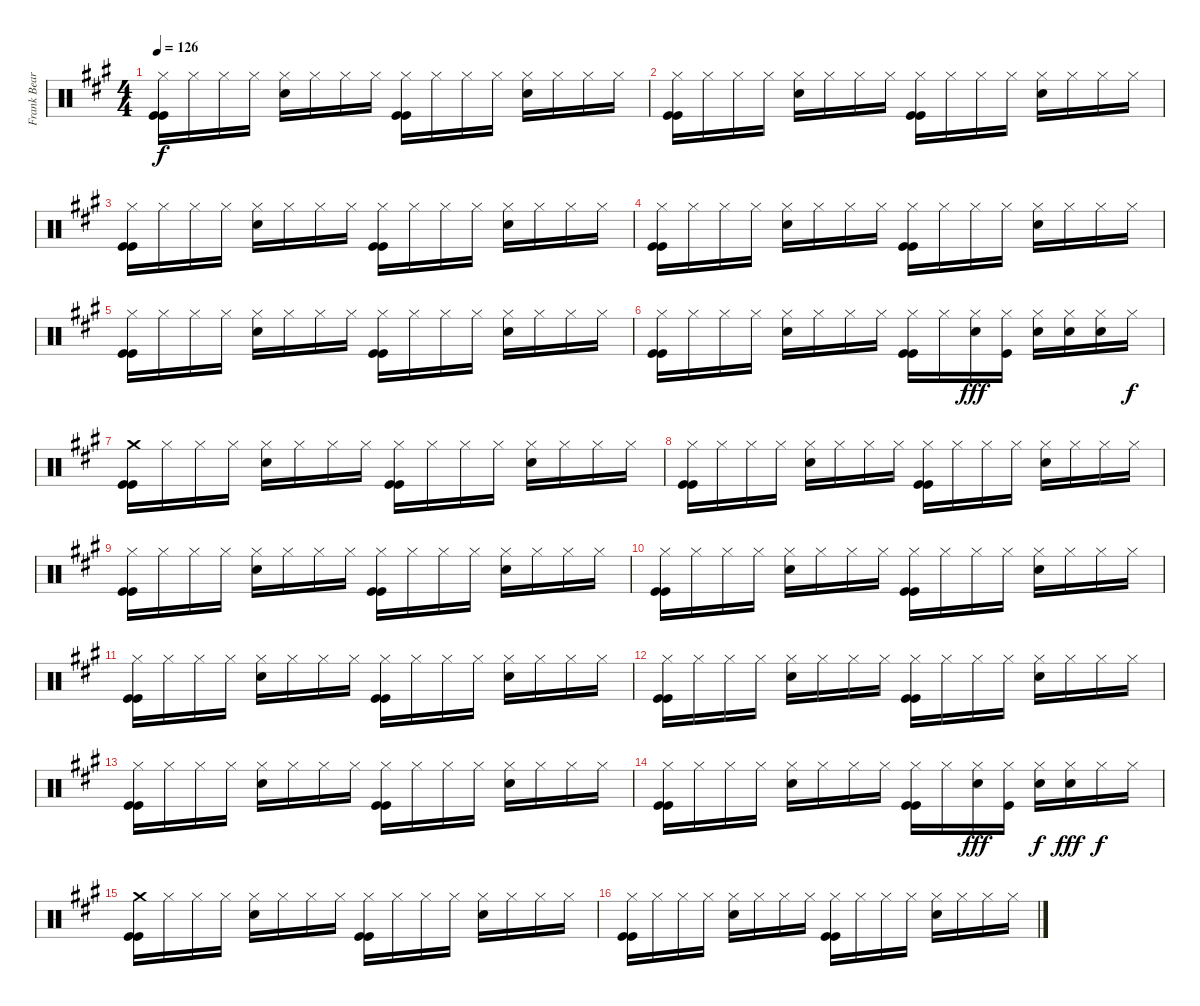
\track ("Frank Beard: Drums" "Frank Bear") {instrument percussion}
\staff {score}
\articulation defaults
\ts (4 4)
\tempo 126
\clef neutral
\ks a
("Hi-Hat (closed)" "Kick (hit)" "Kick (hit)").16{dy f} "Hi-Hat (closed)".16 "Hi-Hat (closed)".16 "Hi-Hat (closed)".16 ("Hi-Hat (closed)" "Electric Snare (hit)").16 "Hi-Hat (closed)".16 "Hi-Hat (closed)".16 "Hi-Hat (closed)".16 ("Hi-Hat (closed)" "Kick (hit)" "Kick (hit)").16 "Hi-Hat (closed)".16 "Hi-Hat (closed)".16 "Hi-Hat (closed)".16 ("Hi-Hat (closed)" "Electric Snare (hit)").16 "Hi-Hat (closed)".16 "Hi-Hat (closed)".16 "Hi-Hat (closed)".16 |
("Hi-Hat (closed)" "Kick (hit)" "Kick (hit)").16 "Hi-Hat (closed)".16 "Hi-Hat (closed)".16 "Hi-Hat (closed)".16 ("Hi-Hat (closed)" "Electric Snare (hit)").16 "Hi-Hat (closed)".16 "Hi-Hat (closed)".16 "Hi-Hat (closed)".16 ("Hi-Hat (closed)" "Kick (hit)" "Kick (hit)").16 "Hi-Hat (closed)".16 "Hi-Hat (closed)".16 "Hi-Hat (closed)".16 ("Hi-Hat (closed)" "Electric Snare (hit)").16 "Hi-Hat (closed)".16 "Hi-Hat (closed)".16 "Hi-Hat (closed)".16 |
("Hi-Hat (closed)" "Kick (hit)" "Kick (hit)").16 "Hi-Hat (closed)".16 "Hi-Hat (closed)".16 "Hi-Hat (closed)".16 ("Hi-Hat (closed)" "Electric Snare (hit)").16 "Hi-Hat (closed)".16 "Hi-Hat (closed)".16 "Hi-Hat (closed)".16 ("Hi-Hat (closed)" "Kick (hit)" "Kick (hit)").16 "Hi-Hat (closed)".16 "Hi-Hat (closed)".16 "Hi-Hat (closed)".16 ("Hi-Hat (closed)" "Electric Snare (hit)").16 "Hi-Hat (closed)".16 "Hi-Hat (closed)".16 "Hi-Hat (closed)".16 |
("Hi-Hat (closed)" "Kick (hit)" "Kick (hit)").16 "Hi-Hat (closed)".16 "Hi-Hat (closed)".16 "Hi-Hat (closed)".16 ("Hi-Hat (closed)" "Electric Snare (hit)").16 "Hi-Hat (closed)".16 "Hi-Hat (closed)".16 "Hi-Hat (closed)".16 ("Hi-Hat (closed)" "Kick (hit)" "Kick (hit)").16 "Hi-Hat (closed)".16 "Hi-Hat (closed)".16 "Hi-Hat (closed)".16 ("Hi-Hat (closed)" "Electric Snare (hit)").16 "Hi-Hat (closed)".16 "Hi-Hat (closed)".16 "Hi-Hat (closed)".16 |
("Hi-Hat (closed)" "Kick (hit)" "Kick (hit)").16 "Hi-Hat (closed)".16 "Hi-Hat (closed)".16 "Hi-Hat (closed)".16 ("Hi-Hat (closed)" "Electric Snare (hit)").16 "Hi-Hat (closed)".16 "Hi-Hat (closed)".16 "Hi-Hat (closed)".16 ("Hi-Hat (closed)" "Kick (hit)" "Kick (hit)").16 "Hi-Hat (closed)".16 "Hi-Hat (closed)".16 "Hi-Hat (closed)".16 ("Hi-Hat (closed)" "Electric Snare (hit)").16 "Hi-Hat (closed)".16 "Hi-Hat (closed)".16 "Hi-Hat (closed)".16 |
("Hi-Hat (closed)" "Kick (hit)" "Kick (hit)").16 "Hi-Hat (closed)".16 "Hi-Hat (closed)".16 "Hi-Hat (closed)".16 ("Hi-Hat (closed)" "Electric Snare (hit)").16 "Hi-Hat (closed)".16 "Hi-Hat (closed)".16 "Hi-Hat (closed)".16 ("Hi-Hat (closed)" "Kick (hit)" "Kick (hit)").16 "Hi-Hat (closed)".16 ("Hi-Hat (closed)" "Electric Snare (hit)").16{dy fff} ("Hi-Hat (closed)" "Kick (hit)").16 ("Hi-Hat (closed)" "Electric Snare (hit)").16 ("Hi-Hat (closed)" "Electric Snare (hit)").16 ("Hi-Hat (closed)" "Electric Snare (hit)").16 "Hi-Hat (closed)".16{dy f} |
("Crash medium (hit)" "Kick (hit)" "Kick (hit)").16 "Hi-Hat (closed)".16 "Hi-Hat (closed)".16 "Hi-Hat (closed)".16 ("Hi-Hat (closed)" "Electric Snare (hit)").16 "Hi-Hat (closed)".16 "Hi-Hat (closed)".16 "Hi-Hat (closed)".16 ("Hi-Hat (closed)" "Kick (hit)" "Kick (hit)").16 "Hi-Hat (closed)".16 "Hi-Hat (closed)".16 "Hi-Hat (closed)".16 ("Hi-Hat (closed)" "Electric Snare (hit)").16 "Hi-Hat (closed)".16 "Hi-Hat (closed)".16 "Hi-Hat (closed)".16 |
("Hi-Hat (closed)" "Kick (hit)" "Kick (hit)").16 "Hi-Hat (closed)".16 "Hi-Hat (closed)".16 "Hi-Hat (closed)".16 ("Hi-Hat (closed)" "Electric Snare (hit)").16 "Hi-Hat (closed)".16 "Hi-Hat (closed)".16 "Hi-Hat (closed)".16 ("Hi-Hat (closed)" "Kick (hit)" "Kick (hit)").16 "Hi-Hat (closed)".16 "Hi-Hat (closed)".16 "Hi-Hat (closed)".16 ("Hi-Hat (closed)" "Electric Snare (hit)").16 "Hi-Hat (closed)".16 "Hi-Hat (closed)".16 "Hi-Hat (closed)".16 |
("Hi-Hat (closed)" "Kick (hit)" "Kick (hit)").16 "Hi-Hat (closed)".16 "Hi-Hat (closed)".16 "Hi-Hat (closed)".16 ("Hi-Hat (closed)" "Electric Snare (hit)").16 "Hi-Hat (closed)".16 "Hi-Hat (closed)".16 "Hi-Hat (closed)".16 ("Hi-Hat (closed)" "Kick (hit)" "Kick (hit)").16 "Hi-Hat (closed)".16 "Hi-Hat (closed)".16 "Hi-Hat (closed)".16 ("Hi-Hat (closed)" "Electric Snare (hit)").16 "Hi-Hat (closed)".16 "Hi-Hat (closed)".16 "Hi-Hat (closed)".16 |
("Hi-Hat (closed)" "Kick (hit)" "Kick (hit)").16 "Hi-Hat (closed)".16 "Hi-Hat (closed)".16 "Hi-Hat (closed)".16 ("Hi-Hat (closed)" "Electric Snare (hit)").16 "Hi-Hat (closed)".16 "Hi-Hat (closed)".16 "Hi-Hat (closed)".16 ("Hi-Hat (closed)" "Kick (hit)" "Kick (hit)").16 "Hi-Hat (closed)".16 "Hi-Hat (closed)".16 "Hi-Hat (closed)".16 ("Hi-Hat (closed)" "Electric Snare (hit)").16 "Hi-Hat (closed)".16 "Hi-Hat (closed)".16 "Hi-Hat (closed)".16 |
("Hi-Hat (closed)" "Kick (hit)" "Kick (hit)").16 "Hi-Hat (closed)".16 "Hi-Hat (closed)".16 "Hi-Hat (closed)".16 ("Hi-Hat (closed)" "Electric Snare (hit)").16 "Hi-Hat (closed)".16 "Hi-Hat (closed)".16 "Hi-Hat (closed)".16 ("Hi-Hat (closed)" "Kick (hit)" "Kick (hit)").16 "Hi-Hat (closed)".16 "Hi-Hat (closed)".16 "Hi-Hat (closed)".16 ("Hi-Hat (closed)" "Electric Snare (hit)").16 "Hi-Hat (closed)".16 "Hi-Hat (closed)".16 "Hi-Hat (closed)".16 |
("Hi-Hat (closed)" "Kick (hit)" "Kick (hit)").16 "Hi-Hat (closed)".16 "Hi-Hat (closed)".16 "Hi-Hat (closed)".16 ("Hi-Hat (closed)" "Electric Snare (hit)").16 "Hi-Hat (closed)".16 "Hi-Hat (closed)".16 "Hi-Hat (closed)".16 ("Hi-Hat (closed)" "Kick (hit)" "Kick (hit)").16 "Hi-Hat (closed)".16 "Hi-Hat (closed)".16 "Hi-Hat (closed)".16 ("Hi-Hat (closed)" "Electric Snare (hit)").16 "Hi-Hat (closed)".16 "Hi-Hat (closed)".16 "Hi-Hat (closed)".16 |
("Hi-Hat (closed)" "Kick (hit)" "Kick (hit)").16 "Hi-Hat (closed)".16 "Hi-Hat (closed)".16 "Hi-Hat (closed)".16 ("Hi-Hat (closed)" "Electric Snare (hit)").16 "Hi-Hat (closed)".16 "Hi-Hat (closed)".16 "Hi-Hat (closed)".16 ("Hi-Hat (closed)" "Kick (hit)" "Kick (hit)").16 "Hi-Hat (closed)".16 "Hi-Hat (closed)".16 "Hi-Hat (closed)".16 ("Hi-Hat (closed)" "Electric Snare (hit)").16 "Hi-Hat (closed)".16 "Hi-Hat (closed)".16 "Hi-Hat (closed)".16 |
("Hi-Hat (closed)" "Kick (hit)" "Kick (hit)").16 "Hi-Hat (closed)".16 "Hi-Hat (closed)".16 "Hi-Hat (closed)".16 ("Hi-Hat (closed)" "Electric Snare (hit)").16 "Hi-Hat (closed)".16 "Hi-Hat (closed)".16 "Hi-Hat (closed)".16 ("Hi-Hat (closed)" "Kick (hit)" "Kick (hit)").16 "Hi-Hat (closed)".16 ("Hi-Hat (closed)" "Electric Snare (hit)").16{dy fff} ("Hi-Hat (closed)" "Kick (hit)").16 ("Hi-Hat (closed)" "Electric Snare (hit)").16{dy f} ("Hi-Hat (closed)" "Electric Snare (hit)").16{dy fff} "Hi-Hat (closed)".16{dy f} "Hi-Hat (closed)".16 |
("Crash medium (hit)" "Kick (hit)" "Kick (hit)").16 "Hi-Hat (closed)".16 "Hi-Hat (closed)".16 "Hi-Hat (closed)".16 ("Hi-Hat (closed)" "Electric Snare (hit)").16 "Hi-Hat (closed)".16 "Hi-Hat (closed)".16 "Hi-Hat (closed)".16 ("Hi-Hat (closed)" "Kick (hit)" "Kick (hit)").16 "Hi-Hat (closed)".16 "Hi-Hat (closed)".16 "Hi-Hat (closed)".16 ("Hi-Hat (closed)" "Electric Snare (hit)").16 "Hi-Hat (closed)".16 "Hi-Hat (closed)".16 "Hi-Hat (closed)".16 |
("Hi-Hat (closed)" "Kick (hit)" "Kick (hit)").16 "Hi-Hat (closed)".16 "Hi-Hat (closed)".16 "Hi-Hat (closed)".16 ("Hi-Hat (closed)" "Electric Snare (hit)").16 "Hi-Hat (closed)".16 "Hi-Hat (closed)".16 "Hi-Hat (closed)".16 ("Hi-Hat (closed)" "Kick (hit)" "Kick (hit)").16 "Hi-Hat (closed)".16 "Hi-Hat (closed)".16 "Hi-Hat (closed)".16 ("Hi-Hat (closed)" "Electric Snare (hit)").16 "Hi-Hat (closed)".16 "Hi-Hat (closed)".16 "Hi-Hat (closed)".16
